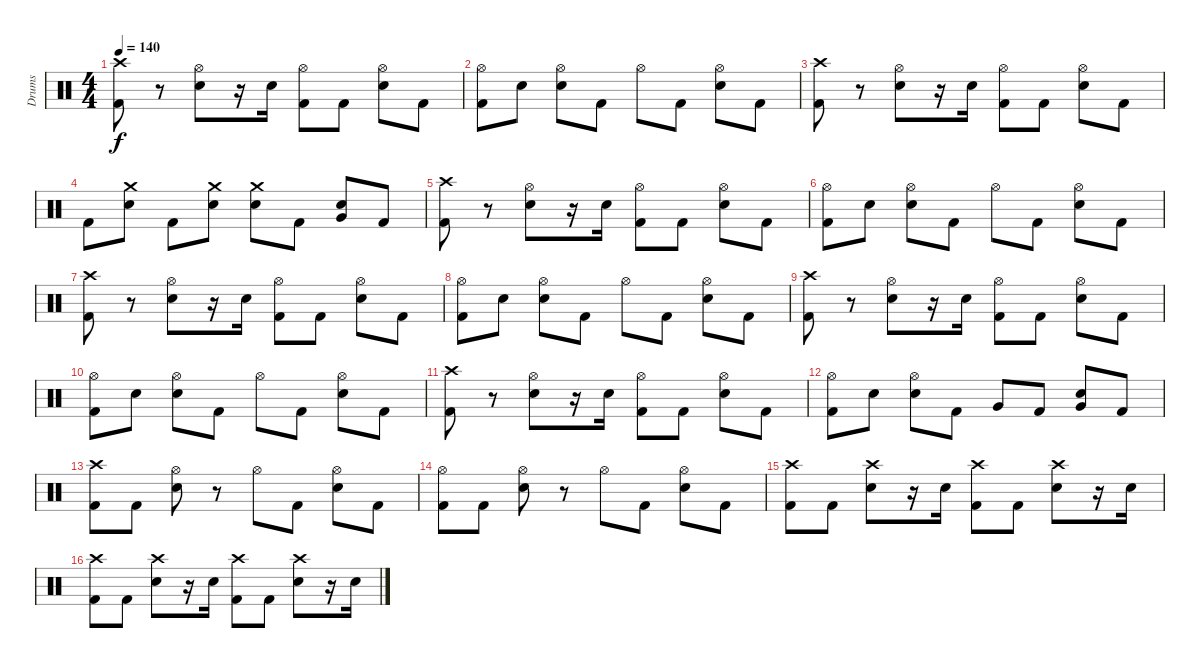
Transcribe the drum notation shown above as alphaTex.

\track ("Drums" "Drums") {instrument percussion}
\staff {score}
\articulation defaults
\ts (4 4)
\tempo 140
\clef neutral
\ks c
("Crash high (hit)" "Kick (hit) 2").8{dy f} r.8 ("Hi-Hat (open)" "Electric Snare (hit)").8 r.16 "Electric Snare (hit)".16 ("Hi-Hat (open)" "Kick (hit) 2").8 "Kick (hit) 2".8 ("Hi-Hat (open)" "Electric Snare (hit)").8 "Kick (hit) 2".8 |
("Hi-Hat (open)" "Kick (hit) 2").8 "Electric Snare (hit)".8 ("Hi-Hat (open)" "Electric Snare (hit)").8 "Kick (hit) 2".8 "Hi-Hat (open)".8 "Kick (hit) 2".8 ("Hi-Hat (open)" "Electric Snare (hit)").8 "Kick (hit) 2".8 |
("Crash high (hit)" "Kick (hit) 2").8 r.8 ("Hi-Hat (open)" "Electric Snare (hit)").8 r.16 "Electric Snare (hit)".16 ("Hi-Hat (open)" "Kick (hit) 2").8 "Kick (hit) 2".8 ("Hi-Hat (open)" "Electric Snare (hit)").8 "Kick (hit) 2".8 |
"Kick (hit) 2".8 ("Crash medium (hit)" "Electric Snare (hit)").8 "Kick (hit) 2".8 ("Crash medium (hit)" "Electric Snare (hit)").8 ("Crash medium (hit)" "Electric Snare (hit)").8 "Kick (hit) 2".8 ("Very Low Tom (hit)" "Electric Snare (hit)").8 "Kick (hit) 2".8 |
("Crash high (hit)" "Kick (hit) 2").8 r.8 ("Hi-Hat (open)" "Electric Snare (hit)").8 r.16 "Electric Snare (hit)".16 ("Hi-Hat (open)" "Kick (hit) 2").8 "Kick (hit) 2".8 ("Hi-Hat (open)" "Electric Snare (hit)").8 "Kick (hit) 2".8 |
("Hi-Hat (open)" "Kick (hit) 2").8 "Electric Snare (hit)".8 ("Hi-Hat (open)" "Electric Snare (hit)").8 "Kick (hit) 2".8 "Hi-Hat (open)".8 "Kick (hit) 2".8 ("Hi-Hat (open)" "Electric Snare (hit)").8 "Kick (hit) 2".8 |
("Crash high (hit)" "Kick (hit) 2").8 r.8 ("Hi-Hat (open)" "Electric Snare (hit)").8 r.16 "Electric Snare (hit)".16 ("Hi-Hat (open)" "Kick (hit) 2").8 "Kick (hit) 2".8 ("Hi-Hat (open)" "Electric Snare (hit)").8 "Kick (hit) 2".8 |
("Hi-Hat (open)" "Kick (hit) 2").8 "Electric Snare (hit)".8 ("Hi-Hat (open)" "Electric Snare (hit)").8 "Kick (hit) 2".8 "Hi-Hat (open)".8 "Kick (hit) 2".8 ("Hi-Hat (open)" "Electric Snare (hit)").8 "Kick (hit) 2".8 |
("Crash high (hit)" "Kick (hit) 2").8 r.8 ("Hi-Hat (open)" "Electric Snare (hit)").8 r.16 "Electric Snare (hit)".16 ("Hi-Hat (open)" "Kick (hit) 2").8 "Kick (hit) 2".8 ("Hi-Hat (open)" "Electric Snare (hit)").8 "Kick (hit) 2".8 |
("Hi-Hat (open)" "Kick (hit) 2").8 "Electric Snare (hit)".8 ("Hi-Hat (open)" "Electric Snare (hit)").8 "Kick (hit) 2".8 "Hi-Hat (open)".8 "Kick (hit) 2".8 ("Hi-Hat (open)" "Electric Snare (hit)").8 "Kick (hit) 2".8 |
("Crash high (hit)" "Kick (hit) 2").8 r.8 ("Hi-Hat (open)" "Electric Snare (hit)").8 r.16 "Electric Snare (hit)".16 ("Hi-Hat (open)" "Kick (hit) 2").8 "Kick (hit) 2".8 ("Hi-Hat (open)" "Electric Snare (hit)").8 "Kick (hit) 2".8 |
("Hi-Hat (open)" "Kick (hit) 2").8 "Electric Snare (hit)".8 ("Hi-Hat (open)" "Electric Snare (hit)").8 "Kick (hit) 2".8 "Very Low Tom (hit)".8 "Kick (hit) 2".8 ("Very Low Tom (hit)" "Electric Snare (hit)").8 "Kick (hit) 2".8 |
("Crash high (hit)" "Kick (hit) 2").8 "Kick (hit) 2".8 ("Hi-Hat (open)" "Electric Snare (hit)").8 r.8 "Hi-Hat (open)".8 "Kick (hit) 2".8 ("Hi-Hat (open)" "Electric Snare (hit)").8 "Kick (hit) 2".8 |
("Hi-Hat (open)" "Kick (hit) 2").8 "Kick (hit) 2".8 ("Hi-Hat (open)" "Electric Snare (hit)").8 r.8 "Hi-Hat (open)".8 "Kick (hit) 2".8 ("Hi-Hat (open)" "Electric Snare (hit)").8 "Kick (hit) 2".8 |
("Crash high (hit)" "Kick (hit) 2").8 "Kick (hit) 2".8 ("Crash high (hit)" "Electric Snare (hit)").8 r.16 "Electric Snare (hit)".16 ("Crash high (hit)" "Kick (hit) 2").8 "Kick (hit) 2".8 ("Crash high (hit)" "Electric Snare (hit)").8 r.16 "Electric Snare (hit)".16 |
("Crash high (hit)" "Kick (hit) 2").8 "Kick (hit) 2".8 ("Crash high (hit)" "Electric Snare (hit)").8 r.16 "Electric Snare (hit)".16 ("Crash high (hit)" "Kick (hit) 2").8 "Kick (hit) 2".8 ("Crash high (hit)" "Electric Snare (hit)").8 r.16 "Electric Snare (hit)".16
